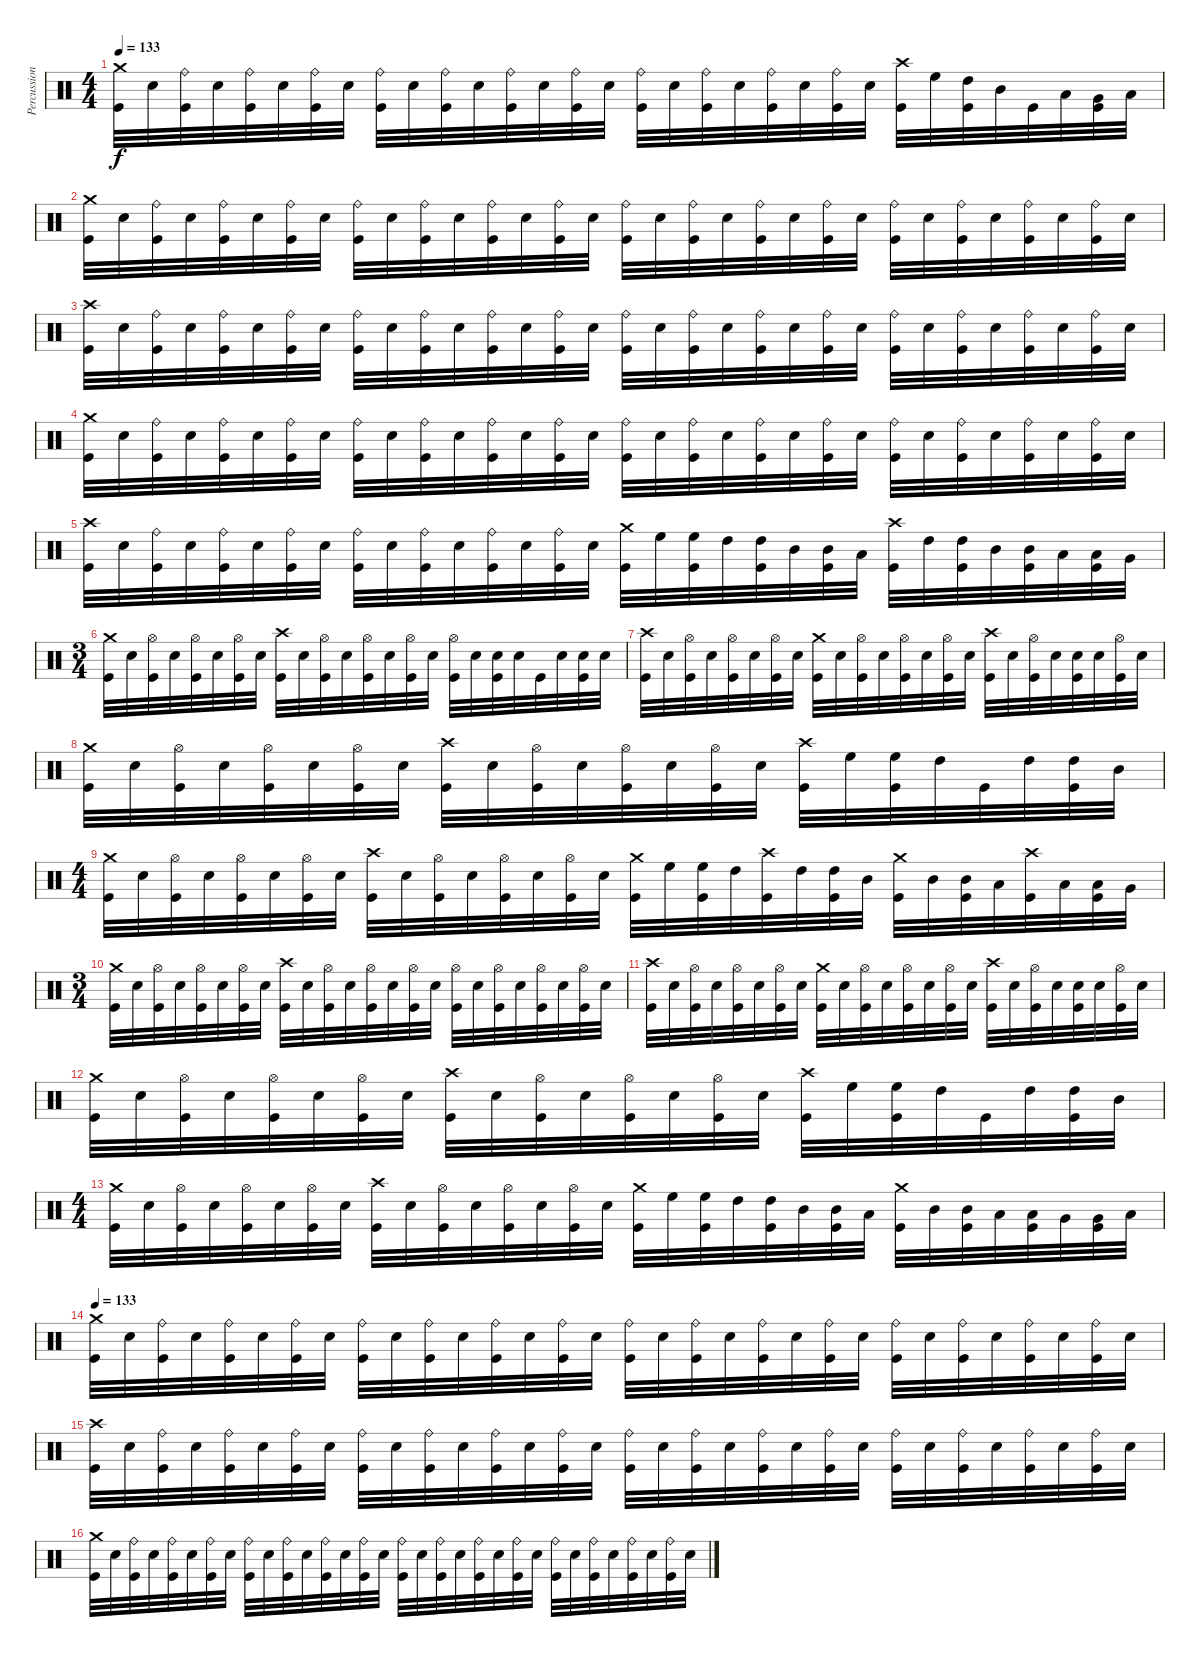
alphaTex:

\track ("Percussion" "Percussion") {instrument percussion}
\staff {score}
\articulation defaults
\ts (4 4)
\tempo 133
\clef neutral
\ks c
("Crash medium (hit)" "Kick (hit)").32{dy f} "Snare (hit) 2".32 ("Ride (bell)" "Kick (hit)").32 "Snare (hit) 2".32 ("Ride (bell)" "Kick (hit)").32 "Snare (hit) 2".32 ("Ride (bell)" "Kick (hit)").32 "Snare (hit) 2".32 ("Ride (bell)" "Kick (hit)").32 "Snare (hit) 2".32 ("Ride (bell)" "Kick (hit)").32 "Snare (hit) 2".32 ("Ride (bell)" "Kick (hit)").32 "Snare (hit) 2".32 ("Ride (bell)" "Kick (hit)").32 "Snare (hit) 2".32 ("Ride (bell)" "Kick (hit)").32 "Snare (hit) 2".32 ("Ride (bell)" "Kick (hit)").32 "Snare (hit) 2".32 ("Ride (bell)" "Kick (hit)").32 "Snare (hit) 2".32 ("Ride (bell)" "Kick (hit)").32 "Snare (hit) 2".32 ("Crash high (hit)" "Kick (hit)").32 "High Floor Tom (hit)".32 ("High Tom (hit)" "Kick (hit)").32 "Mid Tom (hit)".32 "Kick (hit)".32 "Low Tom (hit)".32 ("Very Low Tom (hit)" "Kick (hit)").32 "Low Floor Tom (hit)".32 |
("Crash medium (hit)" "Kick (hit)").32 "Snare (hit) 2".32 ("Ride (bell)" "Kick (hit)").32 "Snare (hit) 2".32 ("Ride (bell)" "Kick (hit)").32 "Snare (hit) 2".32 ("Ride (bell)" "Kick (hit)").32 "Snare (hit) 2".32 ("Ride (bell)" "Kick (hit)").32 "Snare (hit) 2".32 ("Ride (bell)" "Kick (hit)").32 "Snare (hit) 2".32 ("Ride (bell)" "Kick (hit)").32 "Snare (hit) 2".32 ("Ride (bell)" "Kick (hit)").32 "Snare (hit) 2".32 ("Ride (bell)" "Kick (hit)").32 "Snare (hit) 2".32 ("Ride (bell)" "Kick (hit)").32 "Snare (hit) 2".32 ("Ride (bell)" "Kick (hit)").32 "Snare (hit) 2".32 ("Ride (bell)" "Kick (hit)").32 "Snare (hit) 2".32 ("Ride (bell)" "Kick (hit)").32 "Snare (hit) 2".32 ("Ride (bell)" "Kick (hit)").32 "Snare (hit) 2".32 ("Ride (bell)" "Kick (hit)").32 "Snare (hit) 2".32 ("Ride (bell)" "Kick (hit)").32 "Snare (hit) 2".32 |
("Crash high (hit)" "Kick (hit)").32 "Snare (hit) 2".32 ("Ride (bell)" "Kick (hit)").32 "Snare (hit) 2".32 ("Ride (bell)" "Kick (hit)").32 "Snare (hit) 2".32 ("Ride (bell)" "Kick (hit)").32 "Snare (hit) 2".32 ("Ride (bell)" "Kick (hit)").32 "Snare (hit) 2".32 ("Ride (bell)" "Kick (hit)").32 "Snare (hit) 2".32 ("Ride (bell)" "Kick (hit)").32 "Snare (hit) 2".32 ("Ride (bell)" "Kick (hit)").32 "Snare (hit) 2".32 ("Ride (bell)" "Kick (hit)").32 "Snare (hit) 2".32 ("Ride (bell)" "Kick (hit)").32 "Snare (hit) 2".32 ("Ride (bell)" "Kick (hit)").32 "Snare (hit) 2".32 ("Ride (bell)" "Kick (hit)").32 "Snare (hit) 2".32 ("Ride (bell)" "Kick (hit)").32 "Snare (hit) 2".32 ("Ride (bell)" "Kick (hit)").32 "Snare (hit) 2".32 ("Ride (bell)" "Kick (hit)").32 "Snare (hit) 2".32 ("Ride (bell)" "Kick (hit)").32 "Snare (hit) 2".32 |
("Crash medium (hit)" "Kick (hit)").32 "Snare (hit) 2".32 ("Ride (bell)" "Kick (hit)").32 "Snare (hit) 2".32 ("Ride (bell)" "Kick (hit)").32 "Snare (hit) 2".32 ("Ride (bell)" "Kick (hit)").32 "Snare (hit) 2".32 ("Ride (bell)" "Kick (hit)").32 "Snare (hit) 2".32 ("Ride (bell)" "Kick (hit)").32 "Snare (hit) 2".32 ("Ride (bell)" "Kick (hit)").32 "Snare (hit) 2".32 ("Ride (bell)" "Kick (hit)").32 "Snare (hit) 2".32 ("Ride (bell)" "Kick (hit)").32 "Snare (hit) 2".32 ("Ride (bell)" "Kick (hit)").32 "Snare (hit) 2".32 ("Ride (bell)" "Kick (hit)").32 "Snare (hit) 2".32 ("Ride (bell)" "Kick (hit)").32 "Snare (hit) 2".32 ("Ride (bell)" "Kick (hit)").32 "Snare (hit) 2".32 ("Ride (bell)" "Kick (hit)").32 "Snare (hit) 2".32 ("Ride (bell)" "Kick (hit)").32 "Snare (hit) 2".32 ("Ride (bell)" "Kick (hit)").32 "Snare (hit) 2".32 |
("Crash high (hit)" "Kick (hit)").32 "Snare (hit) 2".32 ("Ride (bell)" "Kick (hit)").32 "Snare (hit) 2".32 ("Ride (bell)" "Kick (hit)").32 "Snare (hit) 2".32 ("Ride (bell)" "Kick (hit)").32 "Snare (hit) 2".32 ("Ride (bell)" "Kick (hit)").32 "Snare (hit) 2".32 ("Ride (bell)" "Kick (hit)").32 "Snare (hit) 2".32 ("Ride (bell)" "Kick (hit)").32 "Snare (hit) 2".32 ("Ride (bell)" "Kick (hit)").32 "Snare (hit) 2".32 ("Crash medium (hit)" "Kick (hit)").32 "High Floor Tom (hit)".32 ("High Floor Tom (hit)" "Kick (hit)").32 "High Tom (hit)".32 ("High Tom (hit)" "Kick (hit)").32 "Mid Tom (hit)".32 ("Mid Tom (hit)" "Kick (hit)").32 "Low Tom (hit)".32 ("Crash high (hit)" "Kick (hit)").32 "High Tom (hit)".32 ("High Tom (hit)" "Kick (hit)").32 "Mid Tom (hit)".32 ("Mid Tom (hit)" "Kick (hit)").32 "Low Tom (hit)".32 ("Low Tom (hit)" "Kick (hit)").32 "Very Low Tom (hit)".32 |
\ts (3 4)
("Crash medium (hit)" "Kick (hit)").32 "Snare (hit) 2".32 ("Hi-Hat (open)" "Kick (hit)").32 "Snare (hit) 2".32 ("Hi-Hat (open)" "Kick (hit)").32 "Snare (hit) 2".32 ("Hi-Hat (open)" "Kick (hit)").32 "Snare (hit) 2".32 ("Crash high (hit)" "Kick (hit)").32 "Snare (hit) 2".32 ("Hi-Hat (open)" "Kick (hit)").32 "Snare (hit) 2".32 ("Hi-Hat (open)" "Kick (hit)").32 "Snare (hit) 2".32 ("Hi-Hat (open)" "Kick (hit)").32 "Snare (hit) 2".32 ("Hi-Hat (open)" "Kick (hit)").32 "Snare (hit) 2".32 ("Snare (hit) 2" "Kick (hit)").32 "Snare (hit) 2".32 "Kick (hit)".32 "Snare (hit) 2".32 ("Snare (hit) 2" "Kick (hit)").32 "Snare (hit) 2".32 |
("Crash high (hit)" "Kick (hit)").32 "Snare (hit) 2".32 ("Hi-Hat (open)" "Kick (hit)").32 "Snare (hit) 2".32 ("Hi-Hat (open)" "Kick (hit)").32 "Snare (hit) 2".32 ("Hi-Hat (open)" "Kick (hit)").32 "Snare (hit) 2".32 ("Crash medium (hit)" "Kick (hit)").32 "Snare (hit) 2".32 ("Hi-Hat (open)" "Kick (hit)").32 "Snare (hit) 2".32 ("Hi-Hat (open)" "Kick (hit)").32 "Snare (hit) 2".32 ("Hi-Hat (open)" "Kick (hit)").32 "Snare (hit) 2".32 ("Crash high (hit)" "Kick (hit)").32 "Snare (hit) 2".32 ("Hi-Hat (open)" "Kick (hit)").32 "Snare (hit) 2".32 ("Snare (hit) 2" "Kick (hit)").32 "Snare (hit) 2".32 ("Hi-Hat (open)" "Kick (hit)").32 "Snare (hit) 2".32 |
("Crash medium (hit)" "Kick (hit)").32 "Snare (hit) 2".32 ("Hi-Hat (open)" "Kick (hit)").32 "Snare (hit) 2".32 ("Hi-Hat (open)" "Kick (hit)").32 "Snare (hit) 2".32 ("Hi-Hat (open)" "Kick (hit)").32 "Snare (hit) 2".32 ("Crash high (hit)" "Kick (hit)").32 "Snare (hit) 2".32 ("Hi-Hat (open)" "Kick (hit)").32 "Snare (hit) 2".32 ("Hi-Hat (open)" "Kick (hit)").32 "Snare (hit) 2".32 ("Hi-Hat (open)" "Kick (hit)").32 "Snare (hit) 2".32 ("Crash high (hit)" "Kick (hit)").32 "High Floor Tom (hit)".32 ("High Floor Tom (hit)" "Kick (hit)").32 "High Tom (hit)".32 "Kick (hit)".32 "High Tom (hit)".32 ("High Tom (hit)" "Kick (hit)").32 "Mid Tom (hit)".32 |
\ts (4 4)
("Crash medium (hit)" "Kick (hit)").32 "Snare (hit) 2".32 ("Hi-Hat (open)" "Kick (hit)").32 "Snare (hit) 2".32 ("Hi-Hat (open)" "Kick (hit)").32 "Snare (hit) 2".32 ("Hi-Hat (open)" "Kick (hit)").32 "Snare (hit) 2".32 ("Crash high (hit)" "Kick (hit)").32 "Snare (hit) 2".32 ("Hi-Hat (open)" "Kick (hit)").32 "Snare (hit) 2".32 ("Hi-Hat (open)" "Kick (hit)").32 "Snare (hit) 2".32 ("Hi-Hat (open)" "Kick (hit)").32 "Snare (hit) 2".32 ("Crash medium (hit)" "Kick (hit)").32 "High Floor Tom (hit)".32 ("High Floor Tom (hit)" "Kick (hit)").32 "High Tom (hit)".32 ("Crash high (hit)" "Kick (hit)").32 "High Tom (hit)".32 ("High Tom (hit)" "Kick (hit)").32 "Mid Tom (hit)".32 ("Crash medium (hit)" "Kick (hit)").32 "Mid Tom (hit)".32 ("Mid Tom (hit)" "Kick (hit)").32 "Low Tom (hit)".32 ("Crash high (hit)" "Kick (hit)").32 "Low Tom (hit)".32 ("Low Tom (hit)" "Kick (hit)").32 "Very Low Tom (hit)".32 |
\ts (3 4)
("Crash medium (hit)" "Kick (hit)").32 "Snare (hit) 2".32 ("Hi-Hat (open)" "Kick (hit)").32 "Snare (hit) 2".32 ("Hi-Hat (open)" "Kick (hit)").32 "Snare (hit) 2".32 ("Hi-Hat (open)" "Kick (hit)").32 "Snare (hit) 2".32 ("Crash high (hit)" "Kick (hit)").32 "Snare (hit) 2".32 ("Hi-Hat (open)" "Kick (hit)").32 "Snare (hit) 2".32 ("Hi-Hat (open)" "Kick (hit)").32 "Snare (hit) 2".32 ("Hi-Hat (open)" "Kick (hit)").32 "Snare (hit) 2".32 ("Hi-Hat (open)" "Kick (hit)").32 "Snare (hit) 2".32 ("Hi-Hat (open)" "Kick (hit)").32 "Snare (hit) 2".32 ("Hi-Hat (open)" "Kick (hit)").32 "Snare (hit) 2".32 ("Hi-Hat (open)" "Kick (hit)").32 "Snare (hit) 2".32 |
("Crash high (hit)" "Kick (hit)").32 "Snare (hit) 2".32 ("Hi-Hat (open)" "Kick (hit)").32 "Snare (hit) 2".32 ("Hi-Hat (open)" "Kick (hit)").32 "Snare (hit) 2".32 ("Hi-Hat (open)" "Kick (hit)").32 "Snare (hit) 2".32 ("Crash medium (hit)" "Kick (hit)").32 "Snare (hit) 2".32 ("Hi-Hat (open)" "Kick (hit)").32 "Snare (hit) 2".32 ("Hi-Hat (open)" "Kick (hit)").32 "Snare (hit) 2".32 ("Hi-Hat (open)" "Kick (hit)").32 "Snare (hit) 2".32 ("Crash high (hit)" "Kick (hit)").32 "Snare (hit) 2".32 ("Hi-Hat (open)" "Kick (hit)").32 "Snare (hit) 2".32 ("Snare (hit) 2" "Kick (hit)").32 "Snare (hit) 2".32 ("Hi-Hat (open)" "Kick (hit)").32 "Snare (hit) 2".32 |
("Crash medium (hit)" "Kick (hit)").32 "Snare (hit) 2".32 ("Hi-Hat (open)" "Kick (hit)").32 "Snare (hit) 2".32 ("Hi-Hat (open)" "Kick (hit)").32 "Snare (hit) 2".32 ("Hi-Hat (open)" "Kick (hit)").32 "Snare (hit) 2".32 ("Crash high (hit)" "Kick (hit)").32 "Snare (hit) 2".32 ("Hi-Hat (open)" "Kick (hit)").32 "Snare (hit) 2".32 ("Hi-Hat (open)" "Kick (hit)").32 "Snare (hit) 2".32 ("Hi-Hat (open)" "Kick (hit)").32 "Snare (hit) 2".32 ("Crash high (hit)" "Kick (hit)").32 "High Floor Tom (hit)".32 ("High Floor Tom (hit)" "Kick (hit)").32 "High Tom (hit)".32 "Kick (hit)".32 "High Tom (hit)".32 ("High Tom (hit)" "Kick (hit)").32 "Mid Tom (hit)".32 |
\ts (4 4)
("Crash medium (hit)" "Kick (hit)").32 "Snare (hit) 2".32 ("Hi-Hat (open)" "Kick (hit)").32 "Snare (hit) 2".32 ("Hi-Hat (open)" "Kick (hit)").32 "Snare (hit) 2".32 ("Hi-Hat (open)" "Kick (hit)").32 "Snare (hit) 2".32 ("Crash high (hit)" "Kick (hit)").32 "Snare (hit) 2".32 ("Hi-Hat (open)" "Kick (hit)").32 "Snare (hit) 2".32 ("Hi-Hat (open)" "Kick (hit)").32 "Snare (hit) 2".32 ("Hi-Hat (open)" "Kick (hit)").32 "Snare (hit) 2".32 ("Crash medium (hit)" "Kick (hit)").32 "High Floor Tom (hit)".32 ("High Floor Tom (hit)" "Kick (hit)").32 "High Tom (hit)".32 ("High Tom (hit)" "Kick (hit)").32 "Mid Tom (hit)".32 ("Mid Tom (hit)" "Kick (hit)").32 "Low Tom (hit)".32 ("Crash medium (hit)" "Kick (hit)").32 "Mid Tom (hit)".32 ("Mid Tom (hit)" "Kick (hit)").32 "Low Tom (hit)".32 ("Low Tom (hit)" "Kick (hit)").32 "Very Low Tom (hit)".32 ("Very Low Tom (hit)" "Kick (hit)").32 "Low Floor Tom (hit)".32 |
\tempo 133
("Crash medium (hit)" "Kick (hit)").32 "Snare (hit) 2".32 ("Ride (bell)" "Kick (hit)").32 "Snare (hit) 2".32 ("Ride (bell)" "Kick (hit)").32 "Snare (hit) 2".32 ("Ride (bell)" "Kick (hit)").32 "Snare (hit) 2".32 ("Ride (bell)" "Kick (hit)").32 "Snare (hit) 2".32 ("Ride (bell)" "Kick (hit)").32 "Snare (hit) 2".32 ("Ride (bell)" "Kick (hit)").32 "Snare (hit) 2".32 ("Ride (bell)" "Kick (hit)").32 "Snare (hit) 2".32 ("Ride (bell)" "Kick (hit)").32 "Snare (hit) 2".32 ("Ride (bell)" "Kick (hit)").32 "Snare (hit) 2".32 ("Ride (bell)" "Kick (hit)").32 "Snare (hit) 2".32 ("Ride (bell)" "Kick (hit)").32 "Snare (hit) 2".32 ("Ride (bell)" "Kick (hit)").32 "Snare (hit) 2".32 ("Ride (bell)" "Kick (hit)").32 "Snare (hit) 2".32 ("Ride (bell)" "Kick (hit)").32 "Snare (hit) 2".32 ("Ride (bell)" "Kick (hit)").32 "Snare (hit) 2".32 |
("Crash high (hit)" "Kick (hit)").32 "Snare (hit) 2".32 ("Ride (bell)" "Kick (hit)").32 "Snare (hit) 2".32 ("Ride (bell)" "Kick (hit)").32 "Snare (hit) 2".32 ("Ride (bell)" "Kick (hit)").32 "Snare (hit) 2".32 ("Ride (bell)" "Kick (hit)").32 "Snare (hit) 2".32 ("Ride (bell)" "Kick (hit)").32 "Snare (hit) 2".32 ("Ride (bell)" "Kick (hit)").32 "Snare (hit) 2".32 ("Ride (bell)" "Kick (hit)").32 "Snare (hit) 2".32 ("Ride (bell)" "Kick (hit)").32 "Snare (hit) 2".32 ("Ride (bell)" "Kick (hit)").32 "Snare (hit) 2".32 ("Ride (bell)" "Kick (hit)").32 "Snare (hit) 2".32 ("Ride (bell)" "Kick (hit)").32 "Snare (hit) 2".32 ("Ride (bell)" "Kick (hit)").32 "Snare (hit) 2".32 ("Ride (bell)" "Kick (hit)").32 "Snare (hit) 2".32 ("Ride (bell)" "Kick (hit)").32 "Snare (hit) 2".32 ("Ride (bell)" "Kick (hit)").32 "Snare (hit) 2".32 |
("Crash medium (hit)" "Kick (hit)").32 "Snare (hit) 2".32 ("Ride (bell)" "Kick (hit)").32 "Snare (hit) 2".32 ("Ride (bell)" "Kick (hit)").32 "Snare (hit) 2".32 ("Ride (bell)" "Kick (hit)").32 "Snare (hit) 2".32 ("Ride (bell)" "Kick (hit)").32 "Snare (hit) 2".32 ("Ride (bell)" "Kick (hit)").32 "Snare (hit) 2".32 ("Ride (bell)" "Kick (hit)").32 "Snare (hit) 2".32 ("Ride (bell)" "Kick (hit)").32 "Snare (hit) 2".32 ("Ride (bell)" "Kick (hit)").32 "Snare (hit) 2".32 ("Ride (bell)" "Kick (hit)").32 "Snare (hit) 2".32 ("Ride (bell)" "Kick (hit)").32 "Snare (hit) 2".32 ("Ride (bell)" "Kick (hit)").32 "Snare (hit) 2".32 ("Ride (bell)" "Kick (hit)").32 "Snare (hit) 2".32 ("Ride (bell)" "Kick (hit)").32 "Snare (hit) 2".32 ("Ride (bell)" "Kick (hit)").32 "Snare (hit) 2".32 ("Ride (bell)" "Kick (hit)").32 "Snare (hit) 2".32
